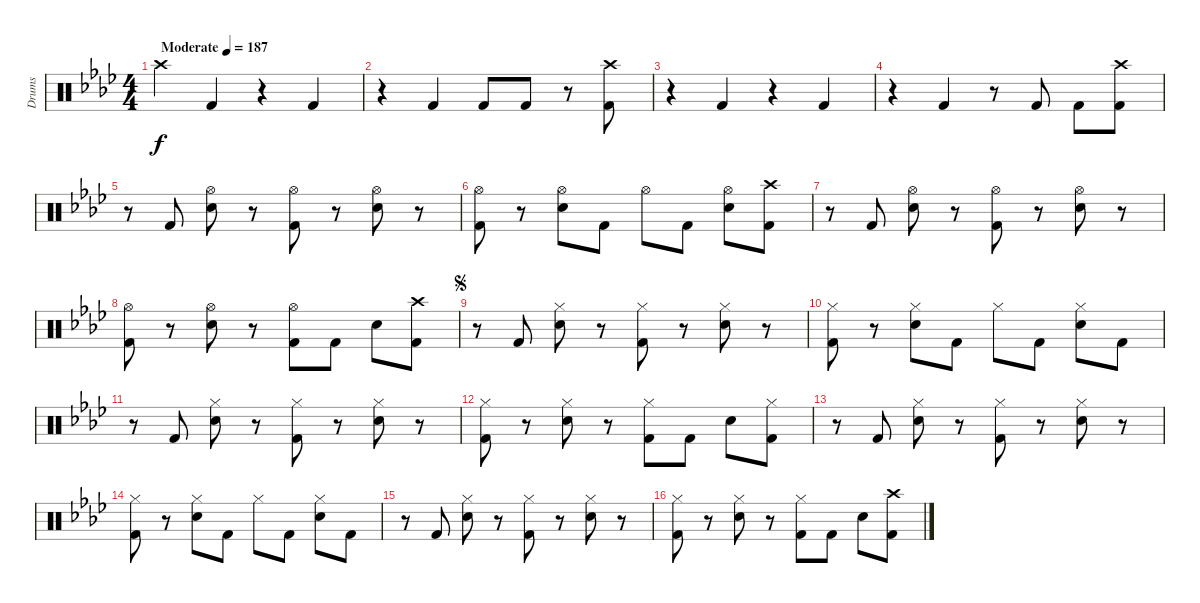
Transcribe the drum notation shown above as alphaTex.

\track ("Drums" "Drums") {instrument percussion}
\staff {score}
\articulation defaults
\ts (4 4)
\tempo (187 "Moderate")
\clef neutral
\ks ab "Crash high (hit)".4{dy f} "Kick (hit) 2".4
r.4 "Kick (hit) 2".4 |
r.4 "Kick (hit) 2".4 "Kick (hit) 2".8 "Kick (hit) 2".8 r.8 ("Crash high (hit)" "Kick (hit) 2").8 |
r.4 "Kick (hit) 2".4 r.4 "Kick (hit) 2".4 |
r.4 "Kick (hit) 2".4 r.8 "Kick (hit) 2".8 "Kick (hit) 2".8 ("Crash high (hit)" "Kick (hit) 2").8 |
r.8 "Kick (hit) 2".8 ("Hi-Hat (open)" "Electric Snare (hit)").8 r.8 ("Hi-Hat (open)" "Kick (hit) 2").8 r.8 ("Hi-Hat (open)" "Electric Snare (hit)").8 r.8 |
("Hi-Hat (open)" "Kick (hit) 2").8 r.8 ("Hi-Hat (open)" "Electric Snare (hit)").8 "Kick (hit) 2".8 "Hi-Hat (open)".8 "Kick (hit) 2".8 ("Hi-Hat (open)" "Electric Snare (hit)").8 ("Crash high (hit)" "Kick (hit) 2").8 |
r.8 "Kick (hit) 2".8 ("Hi-Hat (open)" "Electric Snare (hit)").8 r.8 ("Hi-Hat (open)" "Kick (hit) 2").8 r.8 ("Hi-Hat (open)" "Electric Snare (hit)").8 r.8 |
("Hi-Hat (open)" "Kick (hit) 2").8 r.8 ("Hi-Hat (open)" "Electric Snare (hit)").8 r.8 ("Hi-Hat (open)" "Kick (hit) 2").8 "Kick (hit) 2".8 "Electric Snare (hit)".8 ("Crash high (hit)" "Kick (hit) 2").8 |
\jump segno
r.8 "Kick (hit) 2".8 ("Hi-Hat (closed)" "Electric Snare (hit)").8 r.8 ("Hi-Hat (closed)" "Kick (hit) 2").8 r.8 ("Hi-Hat (closed)" "Electric Snare (hit)").8 r.8 |
("Hi-Hat (closed)" "Kick (hit) 2").8 r.8 ("Hi-Hat (closed)" "Electric Snare (hit)").8 "Kick (hit) 2".8 "Hi-Hat (closed)".8 "Kick (hit) 2".8 ("Hi-Hat (closed)" "Electric Snare (hit)").8 "Kick (hit) 2".8 |
r.8 "Kick (hit) 2".8 ("Hi-Hat (closed)" "Electric Snare (hit)").8 r.8 ("Hi-Hat (closed)" "Kick (hit) 2").8 r.8 ("Hi-Hat (closed)" "Electric Snare (hit)").8 r.8 |
("Hi-Hat (closed)" "Kick (hit) 2").8 r.8 ("Hi-Hat (closed)" "Electric Snare (hit)").8 r.8 ("Hi-Hat (closed)" "Kick (hit) 2").8 "Kick (hit) 2".8 "Electric Snare (hit)".8 ("Hi-Hat (closed)" "Kick (hit) 2").8 |
r.8 "Kick (hit) 2".8 ("Hi-Hat (closed)" "Electric Snare (hit)").8 r.8 ("Hi-Hat (closed)" "Kick (hit) 2").8 r.8 ("Hi-Hat (closed)" "Electric Snare (hit)").8 r.8 |
("Hi-Hat (closed)" "Kick (hit) 2").8 r.8 ("Hi-Hat (closed)" "Electric Snare (hit)").8 "Kick (hit) 2".8 "Hi-Hat (closed)".8 "Kick (hit) 2".8 ("Hi-Hat (closed)" "Electric Snare (hit)").8 "Kick (hit) 2".8 |
r.8 "Kick (hit) 2".8 ("Hi-Hat (closed)" "Electric Snare (hit)").8 r.8 ("Hi-Hat (closed)" "Kick (hit) 2").8 r.8 ("Hi-Hat (closed)" "Electric Snare (hit)").8 r.8 |
("Hi-Hat (closed)" "Kick (hit) 2").8 r.8 ("Hi-Hat (closed)" "Electric Snare (hit)").8 r.8 ("Hi-Hat (closed)" "Kick (hit) 2").8 "Kick (hit) 2".8 "Electric Snare (hit)".8 ("Crash high (hit)" "Kick (hit) 2").8
